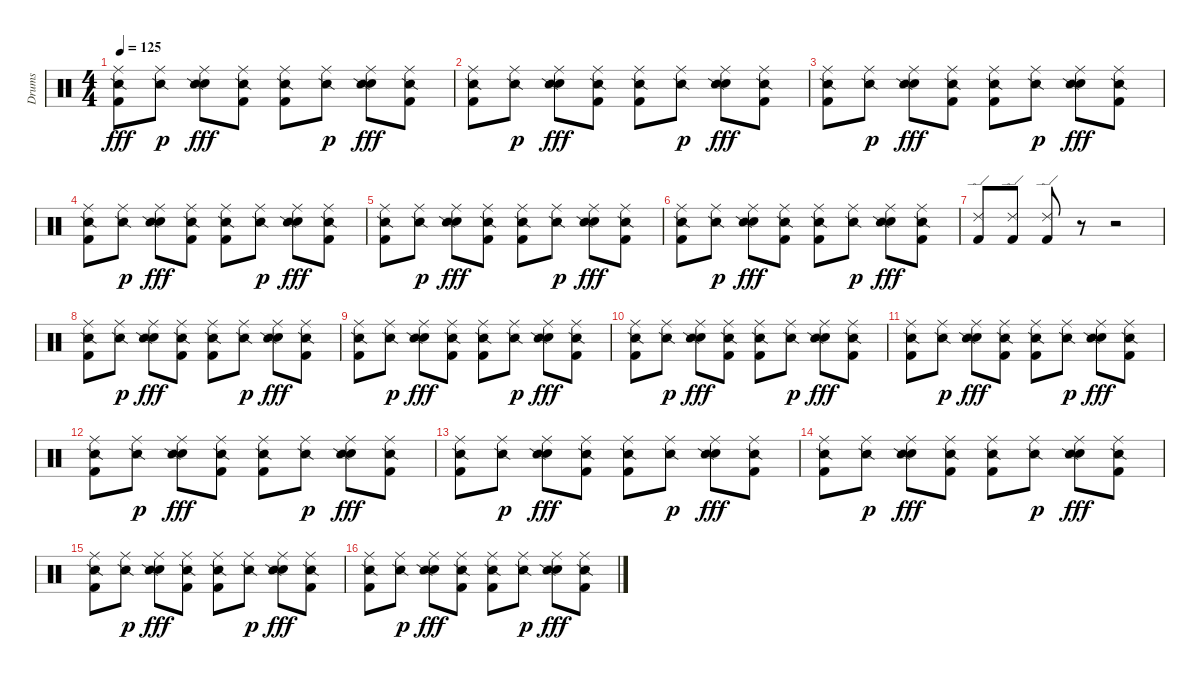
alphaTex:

\track ("Drums" "Drums") {instrument percussion}
\staff {score}
\articulation defaults
\ts (4 4)
\tempo 125
\clef neutral
\ks c
("Kick (hit) 2" "Snare (side stick) 2" "Ride (middle)").8{dy fff} ("Snare (side stick) 2" "Ride (middle)").8{dy p} ("Electric Snare (hit)" "Snare (side stick) 2" "Ride (middle)").8{dy fff} ("Kick (hit) 2" "Snare (side stick) 2" "Ride (middle)").8 ("Kick (hit) 2" "Snare (side stick) 2" "Ride (middle)").8 ("Snare (side stick) 2" "Ride (middle)").8{dy p} ("Electric Snare (hit)" "Snare (side stick) 2" "Ride (middle)").8{dy fff} ("Kick (hit) 2" "Snare (side stick) 2" "Ride (middle)").8 |
("Kick (hit) 2" "Snare (side stick) 2" "Ride (middle)").8 ("Snare (side stick) 2" "Ride (middle)").8{dy p} ("Electric Snare (hit)" "Snare (side stick) 2" "Ride (middle)").8{dy fff} ("Kick (hit) 2" "Snare (side stick) 2" "Ride (middle)").8 ("Kick (hit) 2" "Snare (side stick) 2" "Ride (middle)").8 ("Snare (side stick) 2" "Ride (middle)").8{dy p} ("Electric Snare (hit)" "Snare (side stick) 2" "Ride (middle)").8{dy fff} ("Kick (hit) 2" "Snare (side stick) 2" "Ride (middle)").8 |
("Kick (hit) 2" "Snare (side stick) 2" "Ride (middle)").8 ("Snare (side stick) 2" "Ride (middle)").8{dy p} ("Electric Snare (hit)" "Snare (side stick) 2" "Ride (middle)").8{dy fff} ("Kick (hit) 2" "Snare (side stick) 2" "Ride (middle)").8 ("Kick (hit) 2" "Snare (side stick) 2" "Ride (middle)").8 ("Snare (side stick) 2" "Ride (middle)").8{dy p} ("Electric Snare (hit)" "Snare (side stick) 2" "Ride (middle)").8{dy fff} ("Kick (hit) 2" "Snare (side stick) 2" "Ride (middle)").8 |
("Kick (hit) 2" "Snare (side stick) 2" "Ride (middle)").8 ("Snare (side stick) 2" "Ride (middle)").8{dy p} ("Electric Snare (hit)" "Snare (side stick) 2" "Ride (middle)").8{dy fff} ("Kick (hit) 2" "Snare (side stick) 2" "Ride (middle)").8 ("Kick (hit) 2" "Snare (side stick) 2" "Ride (middle)").8 ("Snare (side stick) 2" "Ride (middle)").8{dy p} ("Electric Snare (hit)" "Snare (side stick) 2" "Ride (middle)").8{dy fff} ("Kick (hit) 2" "Snare (side stick) 2" "Ride (middle)").8 |
("Kick (hit) 2" "Snare (side stick) 2" "Ride (middle)").8 ("Snare (side stick) 2" "Ride (middle)").8{dy p} ("Electric Snare (hit)" "Snare (side stick) 2" "Ride (middle)").8{dy fff} ("Kick (hit) 2" "Snare (side stick) 2" "Ride (middle)").8 ("Kick (hit) 2" "Snare (side stick) 2" "Ride (middle)").8 ("Snare (side stick) 2" "Ride (middle)").8{dy p} ("Electric Snare (hit)" "Snare (side stick) 2" "Ride (middle)").8{dy fff} ("Kick (hit) 2" "Snare (side stick) 2" "Ride (middle)").8 |
("Kick (hit) 2" "Snare (side stick) 2" "Ride (middle)").8 ("Snare (side stick) 2" "Ride (middle)").8{dy p} ("Electric Snare (hit)" "Snare (side stick) 2" "Ride (middle)").8{dy fff} ("Kick (hit) 2" "Snare (side stick) 2" "Ride (middle)").8 ("Kick (hit) 2" "Snare (side stick) 2" "Ride (middle)").8 ("Snare (side stick) 2" "Ride (middle)").8{dy p} ("Electric Snare (hit)" "Snare (side stick) 2" "Ride (middle)").8{dy fff} ("Kick (hit) 2" "Snare (side stick) 2" "Ride (middle)").8 |
("Kick (hit) 2" "Ride (edge) 2").8 ("Kick (hit) 2" "Ride (edge) 2").8 ("Kick (hit) 2" "Ride (edge) 2").8 r.8 r.2 |
("Kick (hit) 2" "Snare (side stick) 2" "Ride (middle)").8 ("Snare (side stick) 2" "Ride (middle)").8{dy p} ("Electric Snare (hit)" "Snare (side stick) 2" "Ride (middle)").8{dy fff} ("Kick (hit) 2" "Snare (side stick) 2" "Ride (middle)").8 ("Kick (hit) 2" "Snare (side stick) 2" "Ride (middle)").8 ("Snare (side stick) 2" "Ride (middle)").8{dy p} ("Electric Snare (hit)" "Snare (side stick) 2" "Ride (middle)").8{dy fff} ("Kick (hit) 2" "Snare (side stick) 2" "Ride (middle)").8 |
("Kick (hit) 2" "Snare (side stick) 2" "Ride (middle)").8 ("Snare (side stick) 2" "Ride (middle)").8{dy p} ("Electric Snare (hit)" "Snare (side stick) 2" "Ride (middle)").8{dy fff} ("Kick (hit) 2" "Snare (side stick) 2" "Ride (middle)").8 ("Kick (hit) 2" "Snare (side stick) 2" "Ride (middle)").8 ("Snare (side stick) 2" "Ride (middle)").8{dy p} ("Electric Snare (hit)" "Snare (side stick) 2" "Ride (middle)").8{dy fff} ("Kick (hit) 2" "Snare (side stick) 2" "Ride (middle)").8 |
("Kick (hit) 2" "Snare (side stick) 2" "Ride (middle)").8 ("Snare (side stick) 2" "Ride (middle)").8{dy p} ("Electric Snare (hit)" "Snare (side stick) 2" "Ride (middle)").8{dy fff} ("Kick (hit) 2" "Snare (side stick) 2" "Ride (middle)").8 ("Kick (hit) 2" "Snare (side stick) 2" "Ride (middle)").8 ("Snare (side stick) 2" "Ride (middle)").8{dy p} ("Electric Snare (hit)" "Snare (side stick) 2" "Ride (middle)").8{dy fff} ("Kick (hit) 2" "Snare (side stick) 2" "Ride (middle)").8 |
("Kick (hit) 2" "Snare (side stick) 2" "Ride (middle)").8 ("Snare (side stick) 2" "Ride (middle)").8{dy p} ("Electric Snare (hit)" "Snare (side stick) 2" "Ride (middle)").8{dy fff} ("Kick (hit) 2" "Snare (side stick) 2" "Ride (middle)").8 ("Kick (hit) 2" "Snare (side stick) 2" "Ride (middle)").8 ("Snare (side stick) 2" "Ride (middle)").8{dy p} ("Electric Snare (hit)" "Snare (side stick) 2" "Ride (middle)").8{dy fff} ("Kick (hit) 2" "Snare (side stick) 2" "Ride (middle)").8 |
("Kick (hit) 2" "Snare (side stick) 2" "Ride (middle)").8 ("Snare (side stick) 2" "Ride (middle)").8{dy p} ("Electric Snare (hit)" "Snare (side stick) 2" "Ride (middle)").8{dy fff} ("Kick (hit) 2" "Snare (side stick) 2" "Ride (middle)").8 ("Kick (hit) 2" "Snare (side stick) 2" "Ride (middle)").8 ("Snare (side stick) 2" "Ride (middle)").8{dy p} ("Electric Snare (hit)" "Snare (side stick) 2" "Ride (middle)").8{dy fff} ("Kick (hit) 2" "Snare (side stick) 2" "Ride (middle)").8 |
("Kick (hit) 2" "Snare (side stick) 2" "Ride (middle)").8 ("Snare (side stick) 2" "Ride (middle)").8{dy p} ("Electric Snare (hit)" "Snare (side stick) 2" "Ride (middle)").8{dy fff} ("Kick (hit) 2" "Snare (side stick) 2" "Ride (middle)").8 ("Kick (hit) 2" "Snare (side stick) 2" "Ride (middle)").8 ("Snare (side stick) 2" "Ride (middle)").8{dy p} ("Electric Snare (hit)" "Snare (side stick) 2" "Ride (middle)").8{dy fff} ("Kick (hit) 2" "Snare (side stick) 2" "Ride (middle)").8 |
("Kick (hit) 2" "Snare (side stick) 2" "Ride (middle)").8 ("Snare (side stick) 2" "Ride (middle)").8{dy p} ("Electric Snare (hit)" "Snare (side stick) 2" "Ride (middle)").8{dy fff} ("Kick (hit) 2" "Snare (side stick) 2" "Ride (middle)").8 ("Kick (hit) 2" "Snare (side stick) 2" "Ride (middle)").8 ("Snare (side stick) 2" "Ride (middle)").8{dy p} ("Electric Snare (hit)" "Snare (side stick) 2" "Ride (middle)").8{dy fff} ("Kick (hit) 2" "Snare (side stick) 2" "Ride (middle)").8 |
("Kick (hit) 2" "Snare (side stick) 2" "Ride (middle)").8 ("Snare (side stick) 2" "Ride (middle)").8{dy p} ("Electric Snare (hit)" "Snare (side stick) 2" "Ride (middle)").8{dy fff} ("Kick (hit) 2" "Snare (side stick) 2" "Ride (middle)").8 ("Kick (hit) 2" "Snare (side stick) 2" "Ride (middle)").8 ("Snare (side stick) 2" "Ride (middle)").8{dy p} ("Electric Snare (hit)" "Snare (side stick) 2" "Ride (middle)").8{dy fff} ("Kick (hit) 2" "Snare (side stick) 2" "Ride (middle)").8 |
("Kick (hit) 2" "Snare (side stick) 2" "Ride (middle)").8 ("Snare (side stick) 2" "Ride (middle)").8{dy p} ("Electric Snare (hit)" "Snare (side stick) 2" "Ride (middle)").8{dy fff} ("Kick (hit) 2" "Snare (side stick) 2" "Ride (middle)").8 ("Kick (hit) 2" "Snare (side stick) 2" "Ride (middle)").8 ("Snare (side stick) 2" "Ride (middle)").8{dy p} ("Electric Snare (hit)" "Snare (side stick) 2" "Ride (middle)").8{dy fff} ("Kick (hit) 2" "Snare (side stick) 2" "Ride (middle)").8
